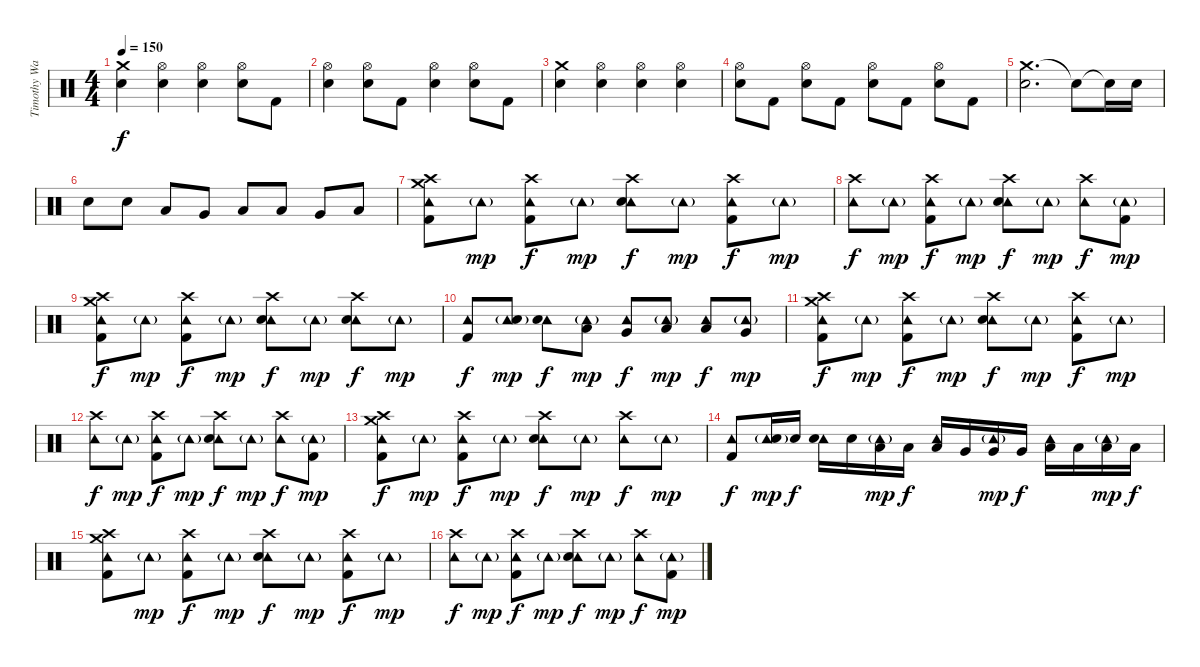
\track ("Timothy Watts" "Timothy Wa") {instrument percussion}
\staff {score}
\articulation defaults
\ts (4 4)
\tempo 150
\clef neutral
\ks c
("Crash medium (hit)" "Electric Snare (hit)").4{dy f} ("Hi-Hat (open)" "Electric Snare (hit)").4 ("Hi-Hat (open)" "Electric Snare (hit)").4 ("Hi-Hat (open)" "Electric Snare (hit)").8 "Kick (hit) 2".8 |
("Hi-Hat (open)" "Electric Snare (hit)").4 ("Hi-Hat (open)" "Electric Snare (hit)").8 "Kick (hit) 2".8 ("Hi-Hat (open)" "Electric Snare (hit)").4 ("Hi-Hat (open)" "Electric Snare (hit)").8 "Kick (hit) 2".8 |
("Crash medium (hit)" "Electric Snare (hit)").4 ("Hi-Hat (open)" "Electric Snare (hit)").4 ("Hi-Hat (open)" "Electric Snare (hit)").4 ("Hi-Hat (open)" "Electric Snare (hit)").4 |
("Hi-Hat (open)" "Electric Snare (hit)").8 "Kick (hit) 2".8 ("Hi-Hat (open)" "Electric Snare (hit)").8 "Kick (hit) 2".8 ("Hi-Hat (open)" "Electric Snare (hit)").8 "Kick (hit) 2".8 ("Hi-Hat (open)" "Electric Snare (hit)").8 "Kick (hit) 2".8 |
("Crash medium (hit)" "Electric Snare (hit)").2{d} "Snare (hit)"{t}.8 "Snare (hit)"{t}.16 "Electric Snare (hit)".16 |
"Electric Snare (hit)".8 "Electric Snare (hit)".8 "Low Tom (hit)".8 "Very Low Tom (hit)".8 "Low Floor Tom (hit)".8 "Low Tom (hit)".8 "Very Low Tom (hit)".8 "Low Floor Tom (hit)".8 |
("Tambourine (hit)" "Crash medium (hit)" "Crash high (hit)" "Kick (hit) 2").8 "Tambourine (hit)"{g}.8{dy mp} ("Tambourine (hit)" "Crash high (hit)" "Kick (hit) 2").8{dy f} "Tambourine (hit)"{g}.8{dy mp} ("Tambourine (hit)" "Crash high (hit)" "Electric Snare (hit)").8{dy f} "Tambourine (hit)"{g}.8{dy mp} ("Tambourine (hit)" "Crash high (hit)" "Kick (hit) 2").8{dy f} "Tambourine (hit)"{g}.8{dy mp} |
("Tambourine (hit)" "Crash high (hit)").8{dy f} "Tambourine (hit)"{g}.8{dy mp} ("Tambourine (hit)" "Crash high (hit)" "Kick (hit) 2").8{dy f} "Tambourine (hit)"{g}.8{dy mp} ("Tambourine (hit)" "Crash high (hit)" "Electric Snare (hit)").8{dy f} "Tambourine (hit)"{g}.8{dy mp} ("Tambourine (hit)" "Crash high (hit)").8{dy f} ("Tambourine (hit)"{g} "Kick (hit) 2").8{dy mp} |
("Tambourine (hit)" "Crash medium (hit)" "Crash high (hit)" "Kick (hit) 2").8{dy f} "Tambourine (hit)"{g}.8{dy mp} ("Tambourine (hit)" "Crash high (hit)" "Kick (hit) 2").8{dy f} "Tambourine (hit)"{g}.8{dy mp} ("Tambourine (hit)" "Crash high (hit)" "Electric Snare (hit)").8{dy f} "Tambourine (hit)"{g}.8{dy mp} ("Tambourine (hit)" "Crash high (hit)" "Electric Snare (hit)").8{dy f} "Tambourine (hit)"{g}.8{dy mp} |
("Tambourine (hit)" "Kick (hit) 2").8{dy f} ("Tambourine (hit)"{g} "Electric Snare (hit)").8{dy mp} ("Tambourine (hit)" "Electric Snare (hit)").8{dy f} ("Tambourine (hit)"{g} "Low Tom (hit)").8{dy mp} ("Tambourine (hit)" "Very Low Tom (hit)").8{dy f} ("Tambourine (hit)"{g} "Low Floor Tom (hit)").8{dy mp} ("Tambourine (hit)" "Low Tom (hit)").8{dy f} ("Tambourine (hit)"{g} "Very Low Tom (hit)").8{dy mp} |
("Tambourine (hit)" "Crash medium (hit)" "Crash high (hit)" "Kick (hit) 2").8{dy f} "Tambourine (hit)"{g}.8{dy mp} ("Tambourine (hit)" "Crash high (hit)" "Kick (hit) 2").8{dy f} "Tambourine (hit)"{g}.8{dy mp} ("Tambourine (hit)" "Crash high (hit)" "Electric Snare (hit)").8{dy f} "Tambourine (hit)"{g}.8{dy mp} ("Tambourine (hit)" "Crash high (hit)" "Kick (hit) 2").8{dy f} "Tambourine (hit)"{g}.8{dy mp} |
("Tambourine (hit)" "Crash high (hit)").8{dy f} "Tambourine (hit)"{g}.8{dy mp} ("Tambourine (hit)" "Crash high (hit)" "Kick (hit) 2").8{dy f} "Tambourine (hit)"{g}.8{dy mp} ("Tambourine (hit)" "Crash high (hit)" "Electric Snare (hit)").8{dy f} "Tambourine (hit)"{g}.8{dy mp} ("Tambourine (hit)" "Crash high (hit)").8{dy f} ("Tambourine (hit)"{g} "Kick (hit) 2").8{dy mp} |
("Tambourine (hit)" "Crash medium (hit)" "Crash high (hit)" "Kick (hit) 2").8{dy f} "Tambourine (hit)"{g}.8{dy mp} ("Tambourine (hit)" "Crash high (hit)" "Kick (hit) 2").8{dy f} "Tambourine (hit)"{g}.8{dy mp} ("Tambourine (hit)" "Crash high (hit)" "Electric Snare (hit)").8{dy f} "Tambourine (hit)"{g}.8{dy mp} ("Tambourine (hit)" "Crash high (hit)").8{dy f} "Tambourine (hit)"{g}.8{dy mp} |
("Tambourine (hit)" "Kick (hit) 2").8{dy f} ("Tambourine (hit)"{g} "Electric Snare (hit)").16{dy mp} "Electric Snare (hit)".16{dy f} ("Tambourine (hit)" "Electric Snare (hit)").16 "Electric Snare (hit)".16 ("Tambourine (hit)"{g} "Low Tom (hit)").16{dy mp} "Low Tom (hit)".16{dy f} ("Tambourine (hit)" "Low Tom (hit)").16 "Very Low Tom (hit)".16 ("Tambourine (hit)"{g} "Very Low Tom (hit)").16{dy mp} "Very Low Tom (hit)".16{dy f} ("Tambourine (hit)" "Low Floor Tom (hit)").16 "Low Floor Tom (hit)".16 ("Tambourine (hit)"{g} "Low Floor Tom (hit)").16{dy mp} "Low Floor Tom (hit)".16{dy f} |
("Tambourine (hit)" "Crash medium (hit)" "Crash high (hit)" "Kick (hit) 2").8 "Tambourine (hit)"{g}.8{dy mp} ("Tambourine (hit)" "Crash high (hit)" "Kick (hit) 2").8{dy f} "Tambourine (hit)"{g}.8{dy mp} ("Tambourine (hit)" "Crash high (hit)" "Electric Snare (hit)").8{dy f} "Tambourine (hit)"{g}.8{dy mp} ("Tambourine (hit)" "Crash high (hit)" "Kick (hit) 2").8{dy f} "Tambourine (hit)"{g}.8{dy mp} |
("Tambourine (hit)" "Crash high (hit)").8{dy f} "Tambourine (hit)"{g}.8{dy mp} ("Tambourine (hit)" "Crash high (hit)" "Kick (hit) 2").8{dy f} "Tambourine (hit)"{g}.8{dy mp} ("Tambourine (hit)" "Crash high (hit)" "Electric Snare (hit)").8{dy f} "Tambourine (hit)"{g}.8{dy mp} ("Tambourine (hit)" "Crash high (hit)").8{dy f} ("Tambourine (hit)"{g} "Kick (hit) 2").8{dy mp}
